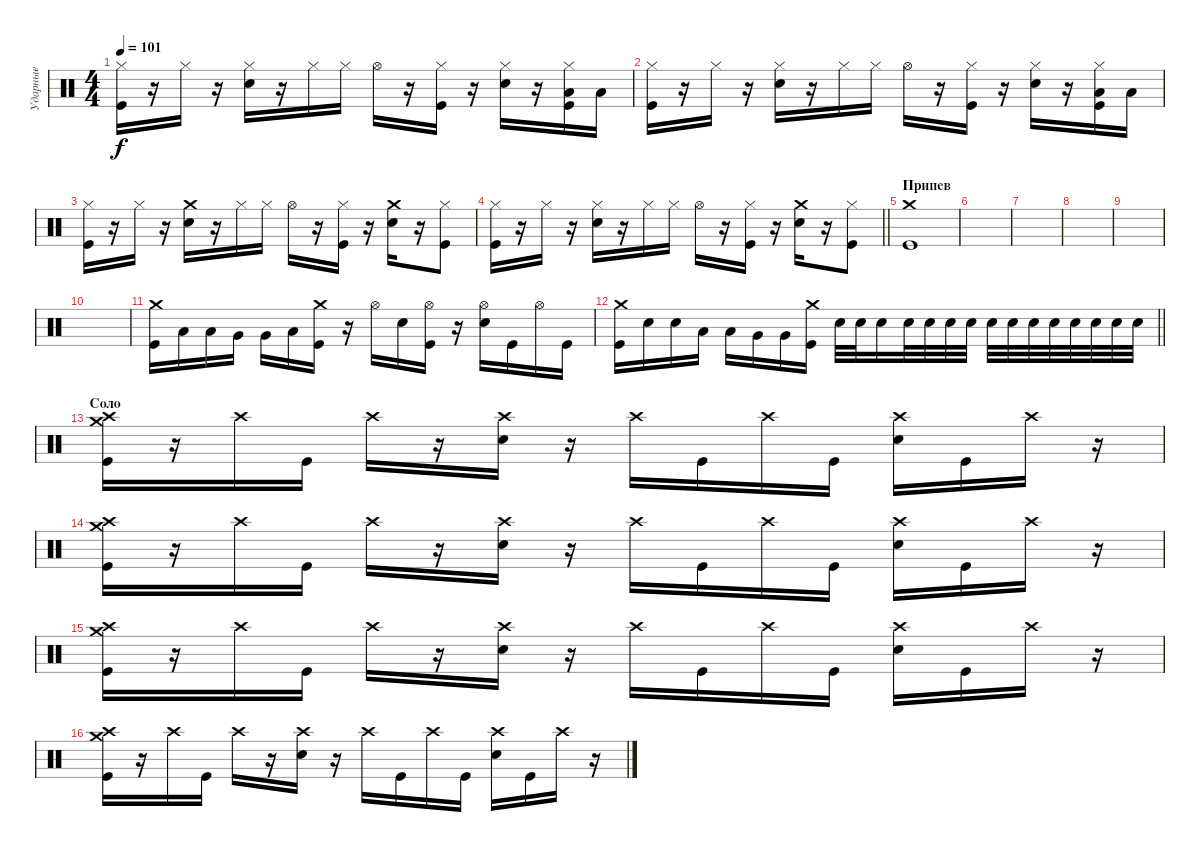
\track ("Ударные" "Ударные") {instrument percussion}
\staff {score}
\articulation defaults
\ts (4 4)
\tempo 101
\clef neutral
\ks c
("Hi-Hat (closed)" "Kick (hit)").16{dy f} r.16 "Hi-Hat (closed)".16 r.16 ("Hi-Hat (closed)" "Electric Snare (hit)").16 r.16 "Hi-Hat (closed)".16 "Hi-Hat (closed)".16 "Hi-Hat (open)".16 r.16 ("Hi-Hat (closed)" "Kick (hit)").16 r.16 ("Hi-Hat (closed)" "Electric Snare (hit)").16 r.16 ("Hi-Hat (closed)" "Low Tom (hit)" "Kick (hit)").16 "Low Tom (hit)".16 |
("Hi-Hat (closed)" "Kick (hit)").16 r.16 "Hi-Hat (closed)".16 r.16 ("Hi-Hat (closed)" "Electric Snare (hit)").16 r.16 "Hi-Hat (closed)".16 "Hi-Hat (closed)".16 "Hi-Hat (open)".16 r.16 ("Hi-Hat (closed)" "Kick (hit)").16 r.16 ("Hi-Hat (closed)" "Electric Snare (hit)").16 r.16 ("Hi-Hat (closed)" "Low Tom (hit)" "Kick (hit)").16 "Low Tom (hit)".16 |
("Hi-Hat (closed)" "Kick (hit)").16 r.16 "Hi-Hat (closed)".16 r.16 ("Crash medium (hit)" "Electric Snare (hit)").16 r.16 "Hi-Hat (closed)".16 "Hi-Hat (closed)".16 "Hi-Hat (open)".16 r.16 ("Hi-Hat (closed)" "Kick (hit)").16 r.16 ("Crash medium (hit)" "Electric Snare (hit)").16 r.16 ("Hi-Hat (closed)" "Kick (hit)").8 |
\barLineRight lightlight
("Hi-Hat (closed)" "Kick (hit)").16 r.16 "Hi-Hat (closed)".16 r.16 ("Hi-Hat (closed)" "Electric Snare (hit)").16 r.16 "Hi-Hat (closed)".16 "Hi-Hat (closed)".16 "Hi-Hat (open)".16 r.16 ("Hi-Hat (closed)" "Kick (hit)").16 r.16 ("Crash medium (hit)" "Electric Snare (hit)").16 r.16 ("Hi-Hat (closed)" "Kick (hit)").8 |
\section ("" "Припев")
("Crash medium (hit)" "Kick (hit)").1 |
|
|
|
|
|
("Crash medium (hit)" "Kick (hit)").16 "Low Tom (hit)".16 "Low Tom (hit)".16 "Very Low Tom (hit)".16 "Very Low Tom (hit)".16 "Low Floor Tom (hit)".16 ("Crash medium (hit)" "Kick (hit)").16 r.16 "Hi-Hat (open)".16 "Electric Snare (hit)".16 ("Hi-Hat (open)" "Kick (hit)").16 r.16 ("Hi-Hat (open)" "Electric Snare (hit)").16 "Kick (hit)".16 "Hi-Hat (open)".16 "Kick (hit)".16 |
\barLineRight lightlight
("Crash medium (hit)" "Kick (hit)").16 "Electric Snare (hit)".16 "Electric Snare (hit)".16 "Low Tom (hit)".16 "Low Tom (hit)".16 "Very Low Tom (hit)".16 "Very Low Tom (hit)".16 ("Crash medium (hit)" "Kick (hit)").16 "Electric Snare (hit)".32 "Electric Snare (hit)".32 "Electric Snare (hit)".16 "Electric Snare (hit)".32 "Electric Snare (hit)".32 "Electric Snare (hit)".32 "Electric Snare (hit)".32 "Electric Snare (hit)".32 "Electric Snare (hit)".32 "Electric Snare (hit)".32 "Electric Snare (hit)".32 "Electric Snare (hit)".32 "Electric Snare (hit)".32 "Electric Snare (hit)".32 "Electric Snare (hit)".32 |
\section ("" "Соло")
("Crash high (hit)" "Crash medium (hit)" "Kick (hit)").16 r.16 "Crash high (hit)".16 "Kick (hit)".16 "Crash high (hit)".16 r.16 ("Crash high (hit)" "Electric Snare (hit)").16 r.16 "Crash high (hit)".16 "Kick (hit)".16 "Crash high (hit)".16 "Kick (hit)".16 ("Crash high (hit)" "Electric Snare (hit)").16 "Kick (hit)".16 "Crash high (hit)".16 r.16 |
("Crash high (hit)" "Crash medium (hit)" "Kick (hit)").16 r.16 "Crash high (hit)".16 "Kick (hit)".16 "Crash high (hit)".16 r.16 ("Crash high (hit)" "Electric Snare (hit)").16 r.16 "Crash high (hit)".16 "Kick (hit)".16 "Crash high (hit)".16 "Kick (hit)".16 ("Crash high (hit)" "Electric Snare (hit)").16 "Kick (hit)".16 "Crash high (hit)".16 r.16 |
("Crash high (hit)" "Crash medium (hit)" "Kick (hit)").16 r.16 "Crash high (hit)".16 "Kick (hit)".16 "Crash high (hit)".16 r.16 ("Crash high (hit)" "Electric Snare (hit)").16 r.16 "Crash high (hit)".16 "Kick (hit)".16 "Crash high (hit)".16 "Kick (hit)".16 ("Crash high (hit)" "Electric Snare (hit)").16 "Kick (hit)".16 "Crash high (hit)".16 r.16 |
("Crash high (hit)" "Crash medium (hit)" "Kick (hit)").16 r.16 "Crash high (hit)".16 "Kick (hit)".16 "Crash high (hit)".16 r.16 ("Crash high (hit)" "Electric Snare (hit)").16 r.16 "Crash high (hit)".16 "Kick (hit)".16 "Crash high (hit)".16 "Kick (hit)".16 ("Crash high (hit)" "Electric Snare (hit)").16 "Kick (hit)".16 "Crash high (hit)".16 r.16
